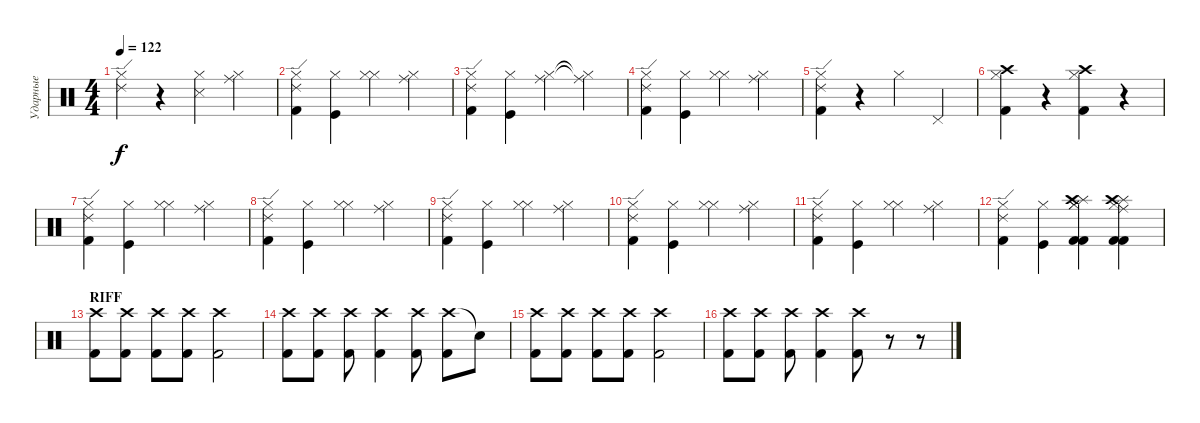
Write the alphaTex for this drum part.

\track ("Ударные" "Ударные") {instrument percussion}
\staff {score}
\articulation defaults
\ts (4 4)
\tempo 122
\clef neutral
\ks c
("Hi-Hat (closed)" "Ride (edge) 2").4{dy f} r.4 ("Hi-Hat (closed)" "Snare (side stick) 3").4 ("Hi-Hat (closed)" "Ride (middle)").4 |
("Hi-Hat (closed)" "Ride (edge) 2" "Kick (hit) 2").4 ("Hi-Hat (closed)" "Kick (hit)").4 ("Hi-Hat (closed)" "Hi-Hat (closed)").4 ("Hi-Hat (closed)" "Ride (middle)").4 |
("Hi-Hat (closed)" "Ride (edge) 2" "Kick (hit) 2").4 ("Hi-Hat (closed)" "Kick (hit)").4 ("Hi-Hat (closed)" "Ride (middle)").4 ("Hi-Hat (closed)"{t} "Ride (middle)"{t}).4 |
("Hi-Hat (closed)" "Ride (edge) 2" "Kick (hit) 2").4 ("Hi-Hat (closed)" "Kick (hit)").4 ("Hi-Hat (closed)" "Hi-Hat (closed)").4 ("Hi-Hat (closed)" "Ride (middle)").4 |
("Hi-Hat (closed)" "Ride (edge) 2" "Kick (hit) 2").4 r.4 "Hi-Hat (closed)".4 "Pedal Hi-Hat (hit)".4 |
("Hi-Hat (closed)" "Crash high (hit)" "Kick (hit) 2").4 r.4 ("Hi-Hat (closed)" "Crash high (hit)" "Kick (hit) 2").4 r.4 |
("Hi-Hat (closed)" "Ride (edge) 2" "Kick (hit) 2").4 ("Hi-Hat (closed)" "Kick (hit)").4 ("Hi-Hat (closed)" "Hi-Hat (closed)").4 ("Hi-Hat (closed)" "Ride (middle)").4 |
("Hi-Hat (closed)" "Ride (edge) 2" "Kick (hit) 2").4 ("Hi-Hat (closed)" "Kick (hit)").4 ("Hi-Hat (closed)" "Hi-Hat (closed)").4 ("Hi-Hat (closed)" "Ride (middle)").4 |
("Hi-Hat (closed)" "Ride (edge) 2" "Kick (hit) 2").4 ("Hi-Hat (closed)" "Kick (hit)").4 ("Hi-Hat (closed)" "Hi-Hat (closed)").4 ("Hi-Hat (closed)" "Ride (middle)").4 |
("Hi-Hat (closed)" "Ride (edge) 2" "Kick (hit) 2").4 ("Hi-Hat (closed)" "Kick (hit)").4 ("Hi-Hat (closed)" "Hi-Hat (closed)").4 ("Hi-Hat (closed)" "Ride (middle)").4 |
("Hi-Hat (closed)" "Ride (edge) 2" "Kick (hit) 2").4 ("Hi-Hat (closed)" "Kick (hit)").4 ("Hi-Hat (closed)" "Hi-Hat (closed)").4 ("Hi-Hat (closed)" "Ride (middle)").4 |
("Hi-Hat (closed)" "Ride (edge) 2" "Kick (hit) 2").4 ("Hi-Hat (closed)" "Kick (hit)").4 ("Splash (hit)" "Crash high (hit)" "Hi-Hat (closed)" "Hi-Hat (closed)" "Kick (hit) 2" "Kick (hit) 2").4 ("Splash (hit)" "Crash high (hit)" "Hi-Hat (closed)" "Ride (middle)" "Kick (hit) 2" "Kick (hit) 2").4 |
\section ("" "RIFF")
("Crash high (hit)" "Kick (hit) 2").8 ("Crash high (hit)" "Kick (hit) 2").8 ("Crash high (hit)" "Kick (hit) 2").8 ("Crash high (hit)" "Kick (hit) 2").8 ("Crash high (hit)" "Kick (hit) 2").2 |
("Crash high (hit)" "Kick (hit) 2").8 ("Crash high (hit)" "Kick (hit) 2").8 ("Crash high (hit)" "Kick (hit) 2").8 ("Crash high (hit)" "Kick (hit) 2").4 ("Crash high (hit)" "Kick (hit) 2").8 ("Crash high (hit)" "Kick (hit) 2").8 "Snare (hit)"{t}.8 |
("Crash high (hit)" "Kick (hit) 2").8 ("Crash high (hit)" "Kick (hit) 2").8 ("Crash high (hit)" "Kick (hit) 2").8 ("Crash high (hit)" "Kick (hit) 2").8 ("Crash high (hit)" "Kick (hit) 2").2 |
("Crash high (hit)" "Kick (hit) 2").8 ("Crash high (hit)" "Kick (hit) 2").8 ("Crash high (hit)" "Kick (hit) 2").8 ("Crash high (hit)" "Kick (hit) 2").4 ("Crash high (hit)" "Kick (hit) 2").8 r.8 r.8
